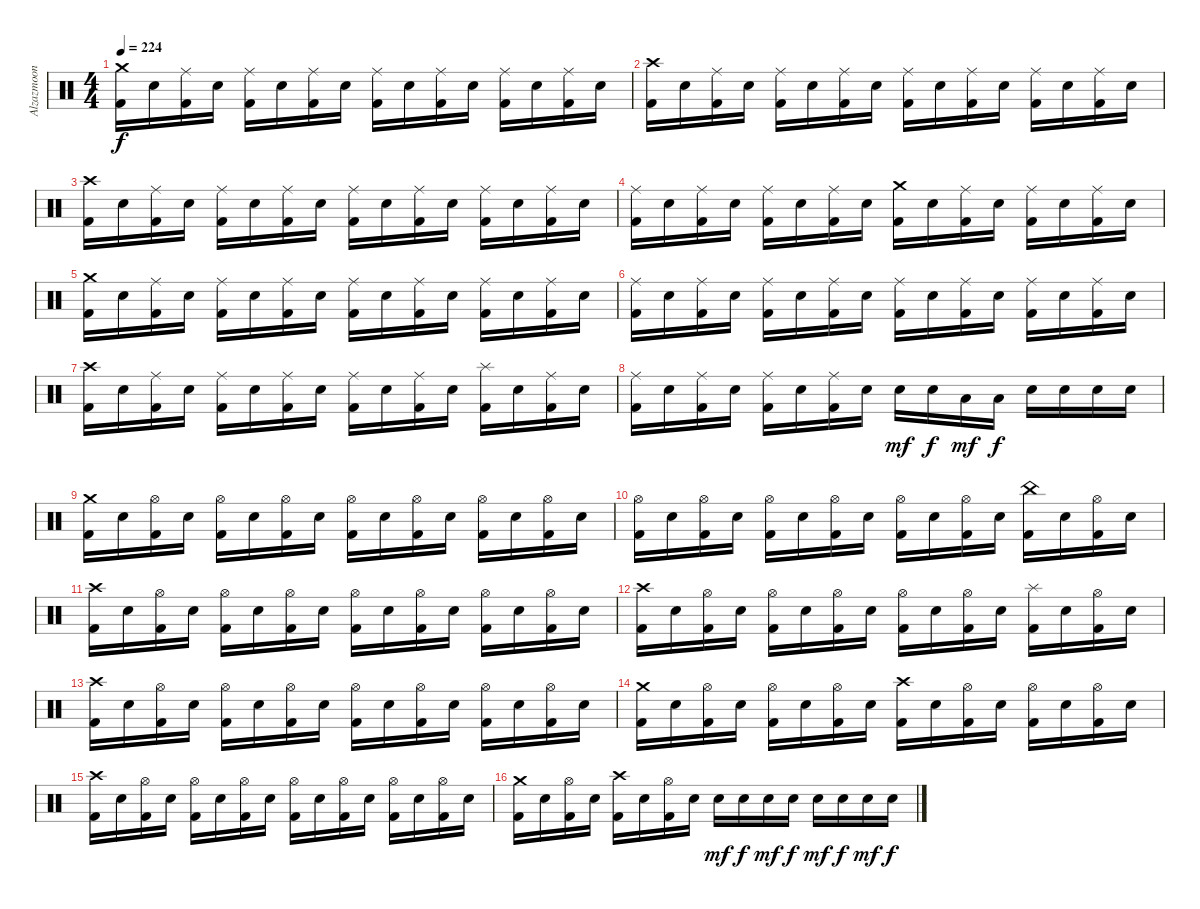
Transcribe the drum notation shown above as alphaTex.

\track ("Alzazmoon" "Alzazmoon") {instrument percussion}
\staff {score}
\articulation defaults
\ts (4 4)
\tempo 224
\clef neutral
\ks c
("Crash medium (hit)" "Kick (hit) 2").16{dy f} "Snare (hit) 2".16 ("Ride (middle)" "Kick (hit) 2").16 "Snare (hit) 2".16 ("Ride (middle)" "Kick (hit) 2").16 "Snare (hit) 2".16 ("Ride (middle)" "Kick (hit) 2").16 "Snare (hit) 2".16 ("Ride (middle)" "Kick (hit) 2").16 "Snare (hit) 2".16 ("Ride (middle)" "Kick (hit) 2").16 "Snare (hit) 2".16 ("Ride (middle)" "Kick (hit) 2").16 "Snare (hit) 2".16 ("Ride (middle)" "Kick (hit) 2").16 "Snare (hit) 2".16 |
("Crash high (hit)" "Kick (hit) 2").16 "Snare (hit) 2".16 ("Ride (middle)" "Kick (hit) 2").16 "Snare (hit) 2".16 ("Ride (middle)" "Kick (hit) 2").16 "Snare (hit) 2".16 ("Ride (middle)" "Kick (hit) 2").16 "Snare (hit) 2".16 ("Ride (middle)" "Kick (hit) 2").16 "Snare (hit) 2".16 ("Ride (middle)" "Kick (hit) 2").16 "Snare (hit) 2".16 ("Ride (middle)" "Kick (hit) 2").16 "Snare (hit) 2".16 ("Ride (middle)" "Kick (hit) 2").16 "Snare (hit) 2".16 |
("Crash high (hit)" "Kick (hit) 2").16 "Snare (hit) 2".16 ("Ride (middle)" "Kick (hit) 2").16 "Snare (hit) 2".16 ("Ride (middle)" "Kick (hit) 2").16 "Snare (hit) 2".16 ("Ride (middle)" "Kick (hit) 2").16 "Snare (hit) 2".16 ("Ride (middle)" "Kick (hit) 2").16 "Snare (hit) 2".16 ("Ride (middle)" "Kick (hit) 2").16 "Snare (hit) 2".16 ("Ride (middle)" "Kick (hit) 2").16 "Snare (hit) 2".16 ("Ride (middle)" "Kick (hit) 2").16 "Snare (hit) 2".16 |
("Ride (middle)" "Kick (hit) 2").16 "Snare (hit) 2".16 ("Ride (middle)" "Kick (hit) 2").16 "Snare (hit) 2".16 ("Ride (middle)" "Kick (hit) 2").16 "Snare (hit) 2".16 ("Ride (middle)" "Kick (hit) 2").16 "Snare (hit) 2".16 ("Crash medium (hit)" "Kick (hit) 2").16 "Snare (hit) 2".16 ("Ride (middle)" "Kick (hit) 2").16 "Snare (hit) 2".16 ("Ride (middle)" "Kick (hit) 2").16 "Snare (hit) 2".16 ("Ride (middle)" "Kick (hit) 2").16 "Snare (hit) 2".16 |
("Crash medium (hit)" "Kick (hit) 2").16 "Snare (hit) 2".16 ("Ride (middle)" "Kick (hit) 2").16 "Snare (hit) 2".16 ("Ride (middle)" "Kick (hit) 2").16 "Snare (hit) 2".16 ("Ride (middle)" "Kick (hit) 2").16 "Snare (hit) 2".16 ("Ride (middle)" "Kick (hit) 2").16 "Snare (hit) 2".16 ("Ride (middle)" "Kick (hit) 2").16 "Snare (hit) 2".16 ("Ride (middle)" "Kick (hit) 2").16 "Snare (hit) 2".16 ("Ride (middle)" "Kick (hit) 2").16 "Snare (hit) 2".16 |
("Ride (middle)" "Kick (hit) 2").16 "Snare (hit) 2".16 ("Ride (middle)" "Kick (hit) 2").16 "Snare (hit) 2".16 ("Ride (middle)" "Kick (hit) 2").16 "Snare (hit) 2".16 ("Ride (middle)" "Kick (hit) 2").16 "Snare (hit) 2".16 ("Ride (middle)" "Kick (hit) 2").16 "Snare (hit) 2".16 ("Ride (middle)" "Kick (hit) 2").16 "Snare (hit) 2".16 ("Ride (middle)" "Kick (hit) 2").16 "Snare (hit) 2".16 ("Ride (middle)" "Kick (hit) 2").16 "Snare (hit) 2".16 |
("Crash high (hit)" "Kick (hit) 2").16 "Snare (hit) 2".16 ("Ride (middle)" "Kick (hit) 2").16 "Snare (hit) 2".16 ("Ride (middle)" "Kick (hit) 2").16 "Snare (hit) 2".16 ("Ride (middle)" "Kick (hit) 2").16 "Snare (hit) 2".16 ("Ride (middle)" "Kick (hit) 2").16 "Snare (hit) 2".16 ("Ride (middle)" "Kick (hit) 2").16 "Snare (hit) 2".16 ("Splash (hit)" "Kick (hit) 2").16 "Snare (hit) 2".16 ("Ride (middle)" "Kick (hit) 2").16 "Snare (hit) 2".16 |
("Ride (middle)" "Kick (hit) 2").16 "Snare (hit) 2".16 ("Ride (middle)" "Kick (hit) 2").16 "Snare (hit) 2".16 ("Ride (middle)" "Kick (hit) 2").16 "Snare (hit) 2".16 ("Ride (middle)" "Kick (hit) 2").16 "Snare (hit) 2".16 "Snare (hit) 2".16{dy mf} "Snare (hit) 2".16{dy f} "Low Tom (hit)".16{dy mf} "Low Tom (hit)".16{dy f} "Snare (hit) 2".16 "Snare (hit) 2".16 "Snare (hit) 2".16 "Snare (hit) 2".16 |
("Crash medium (hit)" "Kick (hit) 2").16 "Snare (hit) 2".16 ("Hi-Hat (open)" "Kick (hit) 2").16 "Snare (hit) 2".16 ("Hi-Hat (open)" "Kick (hit) 2").16 "Snare (hit) 2".16 ("Hi-Hat (open)" "Kick (hit) 2").16 "Snare (hit) 2".16 ("Hi-Hat (open)" "Kick (hit) 2").16 "Snare (hit) 2".16 ("Hi-Hat (open)" "Kick (hit) 2").16 "Snare (hit) 2".16 ("Hi-Hat (open)" "Kick (hit) 2").16 "Snare (hit) 2".16 ("Hi-Hat (open)" "Kick (hit) 2").16 "Snare (hit) 2".16 |
("Hi-Hat (open)" "Kick (hit) 2").16 "Snare (hit) 2".16 ("Hi-Hat (open)" "Kick (hit) 2").16 "Snare (hit) 2".16 ("Hi-Hat (open)" "Kick (hit) 2").16 "Snare (hit) 2".16 ("Hi-Hat (open)" "Kick (hit) 2").16 "Snare (hit) 2".16 ("Hi-Hat (open)" "Kick (hit) 2").16 "Snare (hit) 2".16 ("Hi-Hat (open)" "Kick (hit) 2").16 "Snare (hit) 2".16 ("China (hit)" "Kick (hit) 2").16 "Snare (hit) 2".16 ("Hi-Hat (open)" "Kick (hit) 2").16 "Snare (hit) 2".16 |
("Crash high (hit)" "Kick (hit) 2").16 "Snare (hit) 2".16 ("Hi-Hat (open)" "Kick (hit) 2").16 "Snare (hit) 2".16 ("Hi-Hat (open)" "Kick (hit) 2").16 "Snare (hit) 2".16 ("Hi-Hat (open)" "Kick (hit) 2").16 "Snare (hit) 2".16 ("Hi-Hat (open)" "Kick (hit) 2").16 "Snare (hit) 2".16 ("Hi-Hat (open)" "Kick (hit) 2").16 "Snare (hit) 2".16 ("Hi-Hat (open)" "Kick (hit) 2").16 "Snare (hit) 2".16 ("Hi-Hat (open)" "Kick (hit) 2").16 "Snare (hit) 2".16 |
("Crash high (hit)" "Kick (hit) 2").16 "Snare (hit) 2".16 ("Hi-Hat (open)" "Kick (hit) 2").16 "Snare (hit) 2".16 ("Hi-Hat (open)" "Kick (hit) 2").16 "Snare (hit) 2".16 ("Hi-Hat (open)" "Kick (hit) 2").16 "Snare (hit) 2".16 ("Hi-Hat (open)" "Kick (hit) 2").16 "Snare (hit) 2".16 ("Hi-Hat (open)" "Kick (hit) 2").16 "Snare (hit) 2".16 ("Splash (hit)" "Kick (hit) 2").16 "Snare (hit) 2".16 ("Hi-Hat (open)" "Kick (hit) 2").16 "Snare (hit) 2".16 |
("Crash high (hit)" "Kick (hit) 2").16 "Snare (hit) 2".16 ("Hi-Hat (open)" "Kick (hit) 2").16 "Snare (hit) 2".16 ("Hi-Hat (open)" "Kick (hit) 2").16 "Snare (hit) 2".16 ("Hi-Hat (open)" "Kick (hit) 2").16 "Snare (hit) 2".16 ("Hi-Hat (open)" "Kick (hit) 2").16 "Snare (hit) 2".16 ("Hi-Hat (open)" "Kick (hit) 2").16 "Snare (hit) 2".16 ("Hi-Hat (open)" "Kick (hit) 2").16 "Snare (hit) 2".16 ("Hi-Hat (open)" "Kick (hit) 2").16 "Snare (hit) 2".16 |
("Crash medium (hit)" "Kick (hit) 2").16 "Snare (hit) 2".16 ("Hi-Hat (open)" "Kick (hit) 2").16 "Snare (hit) 2".16 ("Hi-Hat (open)" "Kick (hit) 2").16 "Snare (hit) 2".16 ("Hi-Hat (open)" "Kick (hit) 2").16 "Snare (hit) 2".16 ("Crash high (hit)" "Kick (hit) 2").16 "Snare (hit) 2".16 ("Hi-Hat (open)" "Kick (hit) 2").16 "Snare (hit) 2".16 ("Hi-Hat (open)" "Kick (hit) 2").16 "Snare (hit) 2".16 ("Hi-Hat (open)" "Kick (hit) 2").16 "Snare (hit) 2".16 |
("Crash high (hit)" "Kick (hit) 2").16 "Snare (hit) 2".16 ("Hi-Hat (open)" "Kick (hit) 2").16 "Snare (hit) 2".16 ("Hi-Hat (open)" "Kick (hit) 2").16 "Snare (hit) 2".16 ("Hi-Hat (open)" "Kick (hit) 2").16 "Snare (hit) 2".16 ("Hi-Hat (open)" "Kick (hit) 2").16 "Snare (hit) 2".16 ("Hi-Hat (open)" "Kick (hit) 2").16 "Snare (hit) 2".16 ("Hi-Hat (open)" "Kick (hit) 2").16 "Snare (hit) 2".16 ("Hi-Hat (open)" "Kick (hit) 2").16 "Snare (hit) 2".16 |
("Crash medium (hit)" "Kick (hit) 2").16 "Snare (hit) 2".16 ("Hi-Hat (open)" "Kick (hit) 2").16 "Snare (hit) 2".16 ("Crash high (hit)" "Kick (hit) 2").16 "Snare (hit) 2".16 ("Hi-Hat (open)" "Kick (hit) 2").16 "Snare (hit) 2".16 "Snare (hit) 2".16{dy mf} "Snare (hit) 2".16{dy f} "Snare (hit) 2".16{dy mf} "Snare (hit) 2".16{dy f} "Snare (hit) 2".16{dy mf} "Snare (hit) 2".16{dy f} "Snare (hit) 2".16{dy mf} "Snare (hit) 2".16{dy f}
